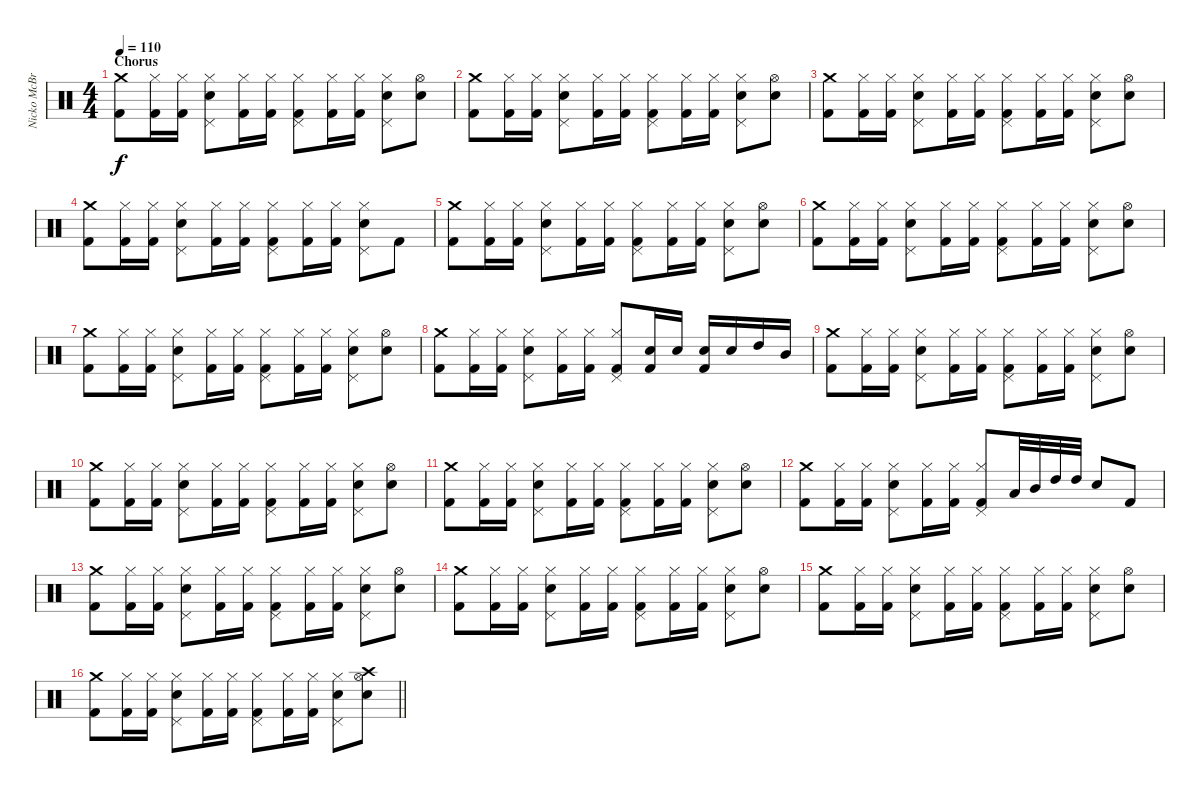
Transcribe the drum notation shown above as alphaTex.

\track ("Nicko McBrain" "Nicko McBr") {instrument percussion}
\staff {score}
\articulation defaults
\ts (4 4)
\section ("" "Chorus")
\tempo 110
\clef neutral
\ks c
("Crash medium (hit)" "Kick (hit) 2").8{dy f} ("Kick (hit) 2" "Hi-Hat (closed)").16 ("Kick (hit) 2" "Hi-Hat (closed)").16 ("Snare (hit) 2" "Pedal Hi-Hat (hit)" "Hi-Hat (closed)").8 ("Kick (hit) 2" "Hi-Hat (closed)").16 ("Kick (hit) 2" "Hi-Hat (closed)").16 ("Kick (hit) 2" "Pedal Hi-Hat (hit)" "Hi-Hat (closed)").8 ("Kick (hit) 2" "Hi-Hat (closed)").16 ("Kick (hit) 2" "Hi-Hat (closed)").16 ("Snare (hit) 2" "Pedal Hi-Hat (hit)" "Hi-Hat (closed)").8 ("Snare (hit) 2" "Hi-Hat (open)").8 |
("Crash medium (hit)" "Kick (hit) 2").8 ("Kick (hit) 2" "Hi-Hat (closed)").16 ("Kick (hit) 2" "Hi-Hat (closed)").16 ("Snare (hit) 2" "Pedal Hi-Hat (hit)" "Hi-Hat (closed)").8 ("Kick (hit) 2" "Hi-Hat (closed)").16 ("Kick (hit) 2" "Hi-Hat (closed)").16 ("Kick (hit) 2" "Pedal Hi-Hat (hit)" "Hi-Hat (closed)").8 ("Kick (hit) 2" "Hi-Hat (closed)").16 ("Kick (hit) 2" "Hi-Hat (closed)").16 ("Snare (hit) 2" "Pedal Hi-Hat (hit)" "Hi-Hat (closed)").8 ("Snare (hit) 2" "Hi-Hat (open)").8 |
("Crash medium (hit)" "Kick (hit) 2").8 ("Kick (hit) 2" "Hi-Hat (closed)").16 ("Kick (hit) 2" "Hi-Hat (closed)").16 ("Snare (hit) 2" "Pedal Hi-Hat (hit)" "Hi-Hat (closed)").8 ("Kick (hit) 2" "Hi-Hat (closed)").16 ("Kick (hit) 2" "Hi-Hat (closed)").16 ("Kick (hit) 2" "Pedal Hi-Hat (hit)" "Hi-Hat (closed)").8 ("Kick (hit) 2" "Hi-Hat (closed)").16 ("Kick (hit) 2" "Hi-Hat (closed)").16 ("Snare (hit) 2" "Pedal Hi-Hat (hit)" "Hi-Hat (closed)").8 ("Snare (hit) 2" "Hi-Hat (open)").8 |
("Crash medium (hit)" "Kick (hit) 2").8 ("Kick (hit) 2" "Hi-Hat (closed)").16 ("Kick (hit) 2" "Hi-Hat (closed)").16 ("Snare (hit) 2" "Pedal Hi-Hat (hit)" "Hi-Hat (closed)").8 ("Kick (hit) 2" "Hi-Hat (closed)").16 ("Kick (hit) 2" "Hi-Hat (closed)").16 ("Kick (hit) 2" "Pedal Hi-Hat (hit)" "Hi-Hat (closed)").8 ("Kick (hit) 2" "Hi-Hat (closed)").16 ("Kick (hit) 2" "Hi-Hat (closed)").16 ("Snare (hit) 2" "Pedal Hi-Hat (hit)" "Hi-Hat (closed)").8 "Kick (hit) 2".8 |
("Crash medium (hit)" "Kick (hit) 2").8 ("Kick (hit) 2" "Hi-Hat (closed)").16 ("Kick (hit) 2" "Hi-Hat (closed)").16 ("Snare (hit) 2" "Pedal Hi-Hat (hit)" "Hi-Hat (closed)").8 ("Kick (hit) 2" "Hi-Hat (closed)").16 ("Kick (hit) 2" "Hi-Hat (closed)").16 ("Kick (hit) 2" "Pedal Hi-Hat (hit)" "Hi-Hat (closed)").8 ("Kick (hit) 2" "Hi-Hat (closed)").16 ("Kick (hit) 2" "Hi-Hat (closed)").16 ("Snare (hit) 2" "Pedal Hi-Hat (hit)" "Hi-Hat (closed)").8 ("Snare (hit) 2" "Hi-Hat (open)").8 |
("Crash medium (hit)" "Kick (hit) 2").8 ("Kick (hit) 2" "Hi-Hat (closed)").16 ("Kick (hit) 2" "Hi-Hat (closed)").16 ("Snare (hit) 2" "Pedal Hi-Hat (hit)" "Hi-Hat (closed)").8 ("Kick (hit) 2" "Hi-Hat (closed)").16 ("Kick (hit) 2" "Hi-Hat (closed)").16 ("Kick (hit) 2" "Pedal Hi-Hat (hit)" "Hi-Hat (closed)").8 ("Kick (hit) 2" "Hi-Hat (closed)").16 ("Kick (hit) 2" "Hi-Hat (closed)").16 ("Snare (hit) 2" "Pedal Hi-Hat (hit)" "Hi-Hat (closed)").8 ("Snare (hit) 2" "Hi-Hat (open)").8 |
("Crash medium (hit)" "Kick (hit) 2").8 ("Kick (hit) 2" "Hi-Hat (closed)").16 ("Kick (hit) 2" "Hi-Hat (closed)").16 ("Snare (hit) 2" "Pedal Hi-Hat (hit)" "Hi-Hat (closed)").8 ("Kick (hit) 2" "Hi-Hat (closed)").16 ("Kick (hit) 2" "Hi-Hat (closed)").16 ("Kick (hit) 2" "Pedal Hi-Hat (hit)" "Hi-Hat (closed)").8 ("Kick (hit) 2" "Hi-Hat (closed)").16 ("Kick (hit) 2" "Hi-Hat (closed)").16 ("Snare (hit) 2" "Pedal Hi-Hat (hit)" "Hi-Hat (closed)").8 ("Snare (hit) 2" "Hi-Hat (open)").8 |
("Crash medium (hit)" "Kick (hit) 2").8 ("Kick (hit) 2" "Hi-Hat (closed)").16 ("Kick (hit) 2" "Hi-Hat (closed)").16 ("Snare (hit) 2" "Pedal Hi-Hat (hit)" "Hi-Hat (closed)").8 ("Kick (hit) 2" "Hi-Hat (closed)").16 ("Kick (hit) 2" "Hi-Hat (closed)").16 ("Kick (hit) 2" "Pedal Hi-Hat (hit)" "Hi-Hat (closed)").8 ("Snare (hit) 2" "Kick (hit) 2").16 "Snare (hit) 2".16 ("Snare (hit) 2" "Kick (hit) 2").16 "Snare (hit) 2".16 "High Tom (hit)".16 "Mid Tom (hit)".16 |
("Crash medium (hit)" "Kick (hit) 2").8 ("Kick (hit) 2" "Hi-Hat (closed)").16 ("Kick (hit) 2" "Hi-Hat (closed)").16 ("Snare (hit) 2" "Pedal Hi-Hat (hit)" "Hi-Hat (closed)").8 ("Kick (hit) 2" "Hi-Hat (closed)").16 ("Kick (hit) 2" "Hi-Hat (closed)").16 ("Kick (hit) 2" "Pedal Hi-Hat (hit)" "Hi-Hat (closed)").8 ("Kick (hit) 2" "Hi-Hat (closed)").16 ("Kick (hit) 2" "Hi-Hat (closed)").16 ("Snare (hit) 2" "Pedal Hi-Hat (hit)" "Hi-Hat (closed)").8 ("Snare (hit) 2" "Hi-Hat (open)").8 |
("Crash medium (hit)" "Kick (hit) 2").8 ("Kick (hit) 2" "Hi-Hat (closed)").16 ("Kick (hit) 2" "Hi-Hat (closed)").16 ("Snare (hit) 2" "Pedal Hi-Hat (hit)" "Hi-Hat (closed)").8 ("Kick (hit) 2" "Hi-Hat (closed)").16 ("Kick (hit) 2" "Hi-Hat (closed)").16 ("Kick (hit) 2" "Pedal Hi-Hat (hit)" "Hi-Hat (closed)").8 ("Kick (hit) 2" "Hi-Hat (closed)").16 ("Kick (hit) 2" "Hi-Hat (closed)").16 ("Snare (hit) 2" "Pedal Hi-Hat (hit)" "Hi-Hat (closed)").8 ("Snare (hit) 2" "Hi-Hat (open)").8 |
("Crash medium (hit)" "Kick (hit) 2").8 ("Kick (hit) 2" "Hi-Hat (closed)").16 ("Kick (hit) 2" "Hi-Hat (closed)").16 ("Snare (hit) 2" "Pedal Hi-Hat (hit)" "Hi-Hat (closed)").8 ("Kick (hit) 2" "Hi-Hat (closed)").16 ("Kick (hit) 2" "Hi-Hat (closed)").16 ("Kick (hit) 2" "Pedal Hi-Hat (hit)" "Hi-Hat (closed)").8 ("Kick (hit) 2" "Hi-Hat (closed)").16 ("Kick (hit) 2" "Hi-Hat (closed)").16 ("Snare (hit) 2" "Pedal Hi-Hat (hit)" "Hi-Hat (closed)").8 ("Snare (hit) 2" "Hi-Hat (open)").8 |
("Crash medium (hit)" "Kick (hit) 2").8 ("Kick (hit) 2" "Hi-Hat (closed)").16 ("Kick (hit) 2" "Hi-Hat (closed)").16 ("Snare (hit) 2" "Pedal Hi-Hat (hit)" "Hi-Hat (closed)").8 ("Kick (hit) 2" "Hi-Hat (closed)").16 ("Kick (hit) 2" "Hi-Hat (closed)").16 ("Kick (hit) 2" "Pedal Hi-Hat (hit)" "Hi-Hat (closed)").8 "Low Tom (hit)".32 "Mid Tom (hit)".32 "High Tom (hit)".32 "High Tom (hit)".32 "Snare (hit) 2".8 "Kick (hit) 2".8 |
("Crash medium (hit)" "Kick (hit) 2").8 ("Kick (hit) 2" "Hi-Hat (closed)").16 ("Kick (hit) 2" "Hi-Hat (closed)").16 ("Snare (hit) 2" "Pedal Hi-Hat (hit)" "Hi-Hat (closed)").8 ("Kick (hit) 2" "Hi-Hat (closed)").16 ("Kick (hit) 2" "Hi-Hat (closed)").16 ("Kick (hit) 2" "Pedal Hi-Hat (hit)" "Hi-Hat (closed)").8 ("Kick (hit) 2" "Hi-Hat (closed)").16 ("Kick (hit) 2" "Hi-Hat (closed)").16 ("Snare (hit) 2" "Pedal Hi-Hat (hit)" "Hi-Hat (closed)").8 ("Snare (hit) 2" "Hi-Hat (open)").8 |
("Crash medium (hit)" "Kick (hit) 2").8 ("Kick (hit) 2" "Hi-Hat (closed)").16 ("Kick (hit) 2" "Hi-Hat (closed)").16 ("Snare (hit) 2" "Pedal Hi-Hat (hit)" "Hi-Hat (closed)").8 ("Kick (hit) 2" "Hi-Hat (closed)").16 ("Kick (hit) 2" "Hi-Hat (closed)").16 ("Kick (hit) 2" "Pedal Hi-Hat (hit)" "Hi-Hat (closed)").8 ("Kick (hit) 2" "Hi-Hat (closed)").16 ("Kick (hit) 2" "Hi-Hat (closed)").16 ("Snare (hit) 2" "Pedal Hi-Hat (hit)" "Hi-Hat (closed)").8 ("Snare (hit) 2" "Hi-Hat (open)").8 |
("Crash medium (hit)" "Kick (hit) 2").8 ("Kick (hit) 2" "Hi-Hat (closed)").16 ("Kick (hit) 2" "Hi-Hat (closed)").16 ("Snare (hit) 2" "Pedal Hi-Hat (hit)" "Hi-Hat (closed)").8 ("Kick (hit) 2" "Hi-Hat (closed)").16 ("Kick (hit) 2" "Hi-Hat (closed)").16 ("Kick (hit) 2" "Pedal Hi-Hat (hit)" "Hi-Hat (closed)").8 ("Kick (hit) 2" "Hi-Hat (closed)").16 ("Kick (hit) 2" "Hi-Hat (closed)").16 ("Snare (hit) 2" "Pedal Hi-Hat (hit)" "Hi-Hat (closed)").8 ("Snare (hit) 2" "Hi-Hat (open)").8 |
\barLineRight lightlight
("Crash medium (hit)" "Kick (hit) 2").8 ("Kick (hit) 2" "Hi-Hat (closed)").16 ("Kick (hit) 2" "Hi-Hat (closed)").16 ("Snare (hit) 2" "Pedal Hi-Hat (hit)" "Hi-Hat (closed)").8 ("Kick (hit) 2" "Hi-Hat (closed)").16 ("Kick (hit) 2" "Hi-Hat (closed)").16 ("Kick (hit) 2" "Pedal Hi-Hat (hit)" "Hi-Hat (closed)").8 ("Kick (hit) 2" "Hi-Hat (closed)").16 ("Kick (hit) 2" "Hi-Hat (closed)").16 ("Snare (hit) 2" "Pedal Hi-Hat (hit)" "Hi-Hat (closed)").8 ("Crash high (hit)" "Snare (hit) 2" "Hi-Hat (open)").8
